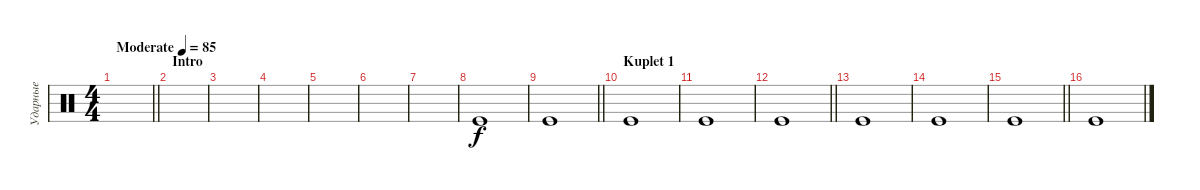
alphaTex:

\track ("Ударные" "Ударные") {instrument percussion}
\staff {score}
\articulation defaults
\ts (4 4)
\tempo (85 "Moderate")
\clef neutral
\barLineRight lightlight
\ks c
|
\section ("" "Intro")
|
|
|
|
|
|
"Kick (hit)".1 |
\barLineRight lightlight "Kick (hit)".1
|
\section ("" "Kuplet 1")
"Kick (hit)".1 |
"Kick (hit)".1 |
\barLineRight lightlight "Kick (hit)".1
|
"Kick (hit)".1 |
"Kick (hit)".1 |
\barLineRight lightlight "Kick (hit)".1
|
"Kick (hit)".1
